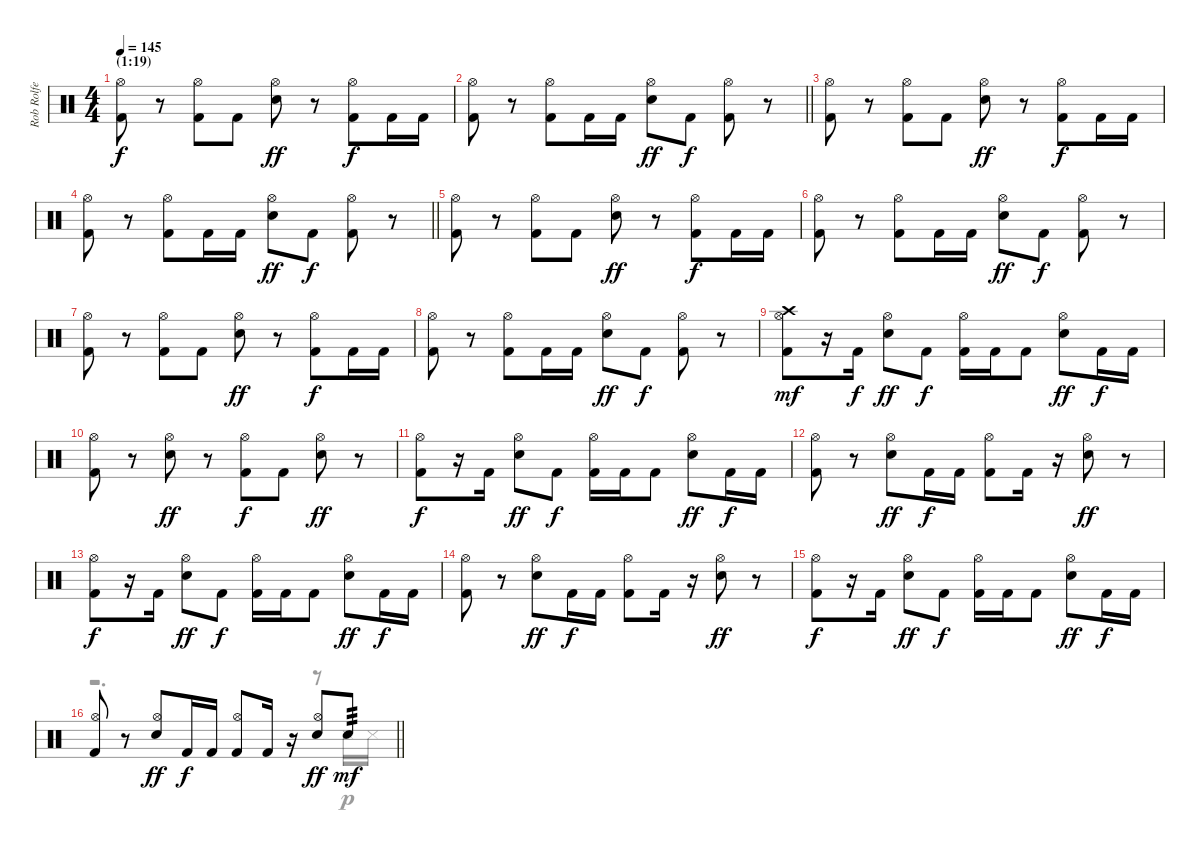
\track ("Rob Rolfe [Drums]" "Rob Rolfe ") {instrument percussion}
\staff {score}
\articulation defaults
\voice
\ts (4 4)
\section ("" "(1:19)")
\tempo 145
\clef neutral
\ks c
("Hi-Hat (open)" "Kick (hit) 2").8{dy f} r.8 ("Hi-Hat (open)" "Kick (hit) 2").8 "Kick (hit) 2".8 ("Hi-Hat (open)" "Electric Snare (hit)").8{dy ff} r.8 ("Hi-Hat (open)" "Kick (hit) 2").8{dy f} "Kick (hit) 2".16 "Kick (hit) 2".16 |
\barLineRight lightlight
("Hi-Hat (open)" "Kick (hit) 2").8 r.8 ("Hi-Hat (open)" "Kick (hit) 2").8 "Kick (hit) 2".16 "Kick (hit) 2".16 ("Hi-Hat (open)" "Electric Snare (hit)").8{dy ff} "Kick (hit) 2".8{dy f} ("Hi-Hat (open)" "Kick (hit) 2").8 r.8 |
("Hi-Hat (open)" "Kick (hit) 2").8 r.8 ("Hi-Hat (open)" "Kick (hit) 2").8 "Kick (hit) 2".8 ("Hi-Hat (open)" "Electric Snare (hit)").8{dy ff} r.8 ("Hi-Hat (open)" "Kick (hit) 2").8{dy f} "Kick (hit) 2".16 "Kick (hit) 2".16 |
\barLineRight lightlight
("Hi-Hat (open)" "Kick (hit) 2").8 r.8 ("Hi-Hat (open)" "Kick (hit) 2").8 "Kick (hit) 2".16 "Kick (hit) 2".16 ("Hi-Hat (open)" "Electric Snare (hit)").8{dy ff} "Kick (hit) 2".8{dy f} ("Hi-Hat (open)" "Kick (hit) 2").8 r.8 |
("Hi-Hat (open)" "Kick (hit) 2").8 r.8 ("Hi-Hat (open)" "Kick (hit) 2").8 "Kick (hit) 2".8 ("Hi-Hat (open)" "Electric Snare (hit)").8{dy ff} r.8 ("Hi-Hat (open)" "Kick (hit) 2").8{dy f} "Kick (hit) 2".16 "Kick (hit) 2".16 |
("Hi-Hat (open)" "Kick (hit) 2").8 r.8 ("Hi-Hat (open)" "Kick (hit) 2").8 "Kick (hit) 2".16 "Kick (hit) 2".16 ("Hi-Hat (open)" "Electric Snare (hit)").8{dy ff} "Kick (hit) 2".8{dy f} ("Hi-Hat (open)" "Kick (hit) 2").8 r.8 |
("Hi-Hat (open)" "Kick (hit) 2").8 r.8 ("Hi-Hat (open)" "Kick (hit) 2").8 "Kick (hit) 2".8 ("Hi-Hat (open)" "Electric Snare (hit)").8{dy ff} r.8 ("Hi-Hat (open)" "Kick (hit) 2").8{dy f} "Kick (hit) 2".16 "Kick (hit) 2".16 |
("Hi-Hat (open)" "Kick (hit) 2").8 r.8 ("Hi-Hat (open)" "Kick (hit) 2").8 "Kick (hit) 2".16 "Kick (hit) 2".16 ("Hi-Hat (open)" "Electric Snare (hit)").8{dy ff} "Kick (hit) 2".8{dy f} ("Hi-Hat (open)" "Kick (hit) 2").8 r.8 |
("Crash high (hit)" "Hi-Hat (open)" "Kick (hit) 2").8{dy mf} r.16 "Kick (hit) 2".16{dy f} ("Hi-Hat (open)" "Electric Snare (hit)").8{dy ff} "Kick (hit) 2".8{dy f} ("Hi-Hat (open)" "Kick (hit) 2").16 "Kick (hit) 2".16 "Kick (hit) 2".8 ("Hi-Hat (open)" "Electric Snare (hit)").8{dy ff} "Kick (hit) 2".16{dy f} "Kick (hit) 2".16 |
("Hi-Hat (open)" "Kick (hit) 2").8 r.8 ("Hi-Hat (open)" "Electric Snare (hit)").8{dy ff} r.8 ("Hi-Hat (open)" "Kick (hit) 2").8{dy f} "Kick (hit) 2".8 ("Hi-Hat (open)" "Electric Snare (hit)").8{dy ff} r.8 |
("Hi-Hat (open)" "Kick (hit) 2").8{dy f} r.16 "Kick (hit) 2".16 ("Hi-Hat (open)" "Electric Snare (hit)").8{dy ff} "Kick (hit) 2".8{dy f} ("Hi-Hat (open)" "Kick (hit) 2").16 "Kick (hit) 2".16 "Kick (hit) 2".8 ("Hi-Hat (open)" "Electric Snare (hit)").8{dy ff} "Kick (hit) 2".16{dy f} "Kick (hit) 2".16 |
("Hi-Hat (open)" "Kick (hit) 2").8 r.8 ("Hi-Hat (open)" "Electric Snare (hit)").8{dy ff} "Kick (hit) 2".16{dy f} "Kick (hit) 2".16 ("Hi-Hat (open)" "Kick (hit) 2").8 "Kick (hit) 2".16 r.16 ("Hi-Hat (open)" "Electric Snare (hit)").8{dy ff} r.8 |
("Hi-Hat (open)" "Kick (hit) 2").8{dy f} r.16 "Kick (hit) 2".16 ("Hi-Hat (open)" "Electric Snare (hit)").8{dy ff} "Kick (hit) 2".8{dy f} ("Hi-Hat (open)" "Kick (hit) 2").16 "Kick (hit) 2".16 "Kick (hit) 2".8 ("Hi-Hat (open)" "Electric Snare (hit)").8{dy ff} "Kick (hit) 2".16{dy f} "Kick (hit) 2".16 |
("Hi-Hat (open)" "Kick (hit) 2").8 r.8 ("Hi-Hat (open)" "Electric Snare (hit)").8{dy ff} "Kick (hit) 2".16{dy f} "Kick (hit) 2".16 ("Hi-Hat (open)" "Kick (hit) 2").8 "Kick (hit) 2".16 r.16 ("Hi-Hat (open)" "Electric Snare (hit)").8{dy ff} r.8 |
("Hi-Hat (open)" "Kick (hit) 2").8{dy f} r.16 "Kick (hit) 2".16 ("Hi-Hat (open)" "Electric Snare (hit)").8{dy ff} "Kick (hit) 2".8{dy f} ("Hi-Hat (open)" "Kick (hit) 2").16 "Kick (hit) 2".16 "Kick (hit) 2".8 ("Hi-Hat (open)" "Electric Snare (hit)").8{dy ff} "Kick (hit) 2".16{dy f} "Kick (hit) 2".16 |
\barLineRight lightlight
("Hi-Hat (open)" "Kick (hit) 2").8 r.8 ("Hi-Hat (open)" "Electric Snare (hit)").8{dy ff} "Kick (hit) 2".16{dy f} "Kick (hit) 2".16 ("Hi-Hat (open)" "Kick (hit) 2").8 "Kick (hit) 2".16 r.16 ("Hi-Hat (open)" "Electric Snare (hit)").8{dy ff} "Electric Snare (hit)".8{tp 3 dy mf}
\voice
\clef neutral
\ottava regular
\simile none
\ks c
|
\barLineRight lightlight
|
|
\barLineRight lightlight
|
|
|
|
|
|
|
|
|
|
|
|
\barLineRight lightlight
r.2{d} r.8 "Snare (side stick) 3".16{dy p} "Snare (side stick) 3".16
